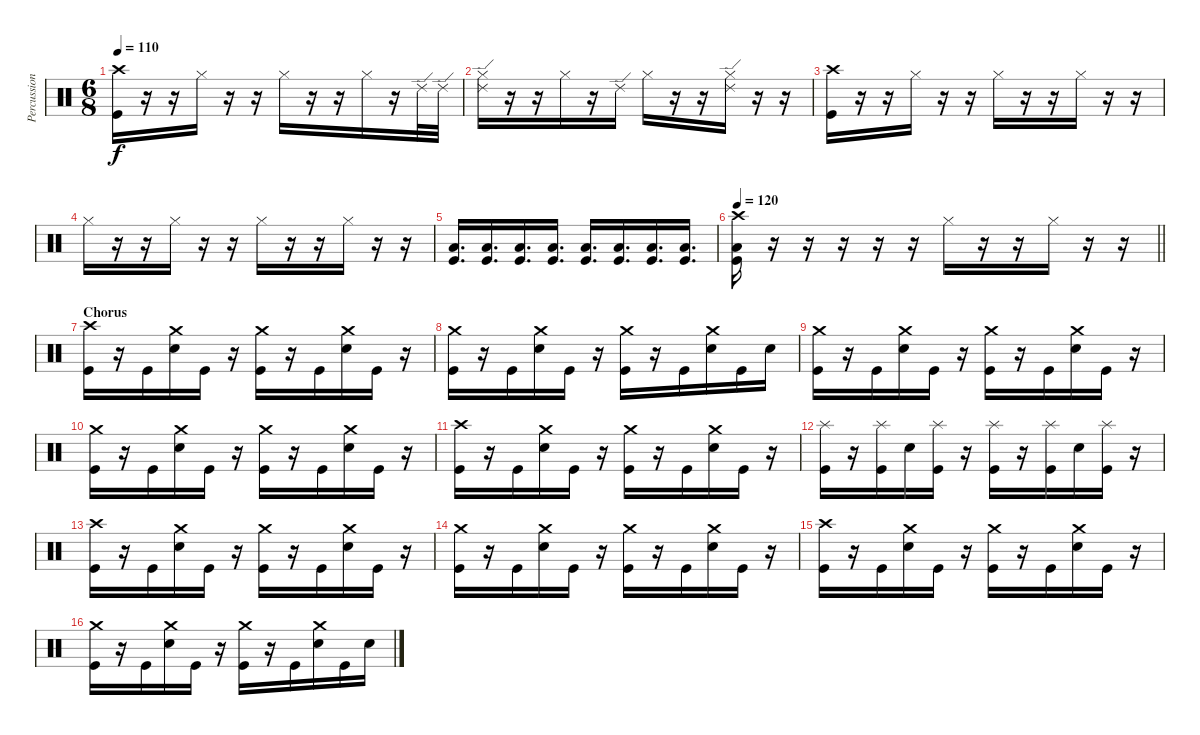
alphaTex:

\track ("Percussion" "Percussion") {instrument percussion}
\staff {score}
\articulation defaults
\ts (6 8)
\tempo 110
\clef neutral
\ks c
("Crash high (hit)" "Kick (hit)").16{dy f} r.16 r.16 "Hi-Hat (closed)".16 r.16 r.16 "Hi-Hat (closed)".16 r.16 r.16 "Hi-Hat (closed)".16 r.16 "Ride (edge) 2".32 "Ride (edge) 2".32 |
("Hi-Hat (closed)" "Ride (edge) 2").16 r.16 r.16 "Hi-Hat (closed)".16 r.16 "Ride (edge) 2".16 "Hi-Hat (closed)".16 r.16 r.16 ("Hi-Hat (closed)" "Ride (edge) 2").16 r.16 r.16 |
("Crash high (hit)" "Kick (hit)").16 r.16 r.16 "Hi-Hat (closed)".16 r.16 r.16 "Hi-Hat (closed)".16 r.16 r.16 "Hi-Hat (closed)".16 r.16 r.16 |
"Hi-Hat (closed)".16 r.16 r.16 "Hi-Hat (closed)".16 r.16 r.16 "Hi-Hat (closed)".16 r.16 r.16 "Hi-Hat (closed)".16 r.16 r.16 |
("Low Floor Tom (hit)" "Kick (hit)").16{d} ("Low Floor Tom (hit)" "Kick (hit)").16{d} ("Low Floor Tom (hit)" "Kick (hit)").16{d} ("Low Floor Tom (hit)" "Kick (hit)").16{d} ("Low Floor Tom (hit)" "Kick (hit)").16{d} ("Low Floor Tom (hit)" "Kick (hit)").16{d} ("Low Floor Tom (hit)" "Kick (hit)").16{d} ("Low Floor Tom (hit)" "Kick (hit)").16{d} |
\tempo 120
\barLineRight lightlight
("Crash high (hit)" "Low Floor Tom (hit)" "Kick (hit)").16 r.16 r.16 r.16 r.16 r.16 "Hi-Hat (closed)".16 r.16 r.16 "Hi-Hat (closed)".16 r.16 r.16 |
\section ("" "Chorus")
("Crash high (hit)" "Kick (hit)").16 r.16 "Kick (hit)".16 ("Crash medium (hit)" "Snare (hit) 2").16 "Kick (hit)".16 r.16 ("Crash medium (hit)" "Kick (hit)").16 r.16 "Kick (hit)".16 ("Crash medium (hit)" "Snare (hit) 2").16 "Kick (hit)".16 r.16 |
("Crash medium (hit)" "Kick (hit)").16 r.16 "Kick (hit)".16 ("Crash medium (hit)" "Snare (hit) 2").16 "Kick (hit)".16 r.16 ("Crash medium (hit)" "Kick (hit)").16 r.16 "Kick (hit)".16 ("Crash medium (hit)" "Snare (hit) 2").16 "Kick (hit)".16 "Snare (hit) 2".16 |
("Crash medium (hit)" "Kick (hit)").16 r.16 "Kick (hit)".16 ("Crash medium (hit)" "Snare (hit) 2").16 "Kick (hit)".16 r.16 ("Crash medium (hit)" "Kick (hit)").16 r.16 "Kick (hit)".16 ("Crash medium (hit)" "Snare (hit) 2").16 "Kick (hit)".16 r.16 |
("Crash medium (hit)" "Kick (hit)").16 r.16 "Kick (hit)".16 ("Crash medium (hit)" "Snare (hit) 2").16 "Kick (hit)".16 r.16 ("Crash medium (hit)" "Kick (hit)").16 r.16 "Kick (hit)".16 ("Crash medium (hit)" "Snare (hit) 2").16 "Kick (hit)".16 r.16 |
("Crash high (hit)" "Kick (hit)").16 r.16 "Kick (hit)".16 ("Crash medium (hit)" "Snare (hit) 2").16 "Kick (hit)".16 r.16 ("Crash medium (hit)" "Kick (hit)").16 r.16 "Kick (hit)".16 ("Crash medium (hit)" "Snare (hit) 2").16 "Kick (hit)".16 r.16 |
("Splash (hit)" "Kick (hit)").16 r.16 ("Splash (hit)" "Kick (hit)").16 "Snare (hit) 2".16 ("Splash (hit)" "Kick (hit)").16 r.16 ("Splash (hit)" "Kick (hit)").16 r.16 ("Splash (hit)" "Kick (hit)").16 "Snare (hit) 2".16 ("Splash (hit)" "Kick (hit)").16 r.16 |
("Crash high (hit)" "Kick (hit)").16 r.16 "Kick (hit)".16 ("Crash medium (hit)" "Snare (hit) 2").16 "Kick (hit)".16 r.16 ("Crash medium (hit)" "Kick (hit)").16 r.16 "Kick (hit)".16 ("Crash medium (hit)" "Snare (hit) 2").16 "Kick (hit)".16 r.16 |
("Crash medium (hit)" "Kick (hit)").16 r.16 "Kick (hit)".16 ("Crash medium (hit)" "Snare (hit) 2").16 "Kick (hit)".16 r.16 ("Crash medium (hit)" "Kick (hit)").16 r.16 "Kick (hit)".16 ("Crash medium (hit)" "Snare (hit) 2").16 "Kick (hit)".16 r.16 |
("Crash high (hit)" "Kick (hit)").16 r.16 "Kick (hit)".16 ("Crash medium (hit)" "Snare (hit) 2").16 "Kick (hit)".16 r.16 ("Crash medium (hit)" "Kick (hit)").16 r.16 "Kick (hit)".16 ("Crash medium (hit)" "Snare (hit) 2").16 "Kick (hit)".16 r.16 |
("Crash medium (hit)" "Kick (hit)").16 r.16 "Kick (hit)".16 ("Crash medium (hit)" "Snare (hit) 2").16 "Kick (hit)".16 r.16 ("Crash medium (hit)" "Kick (hit)").16 r.16 "Kick (hit)".16 ("Crash medium (hit)" "Snare (hit) 2").16 "Kick (hit)".16 "Snare (hit) 2".16
